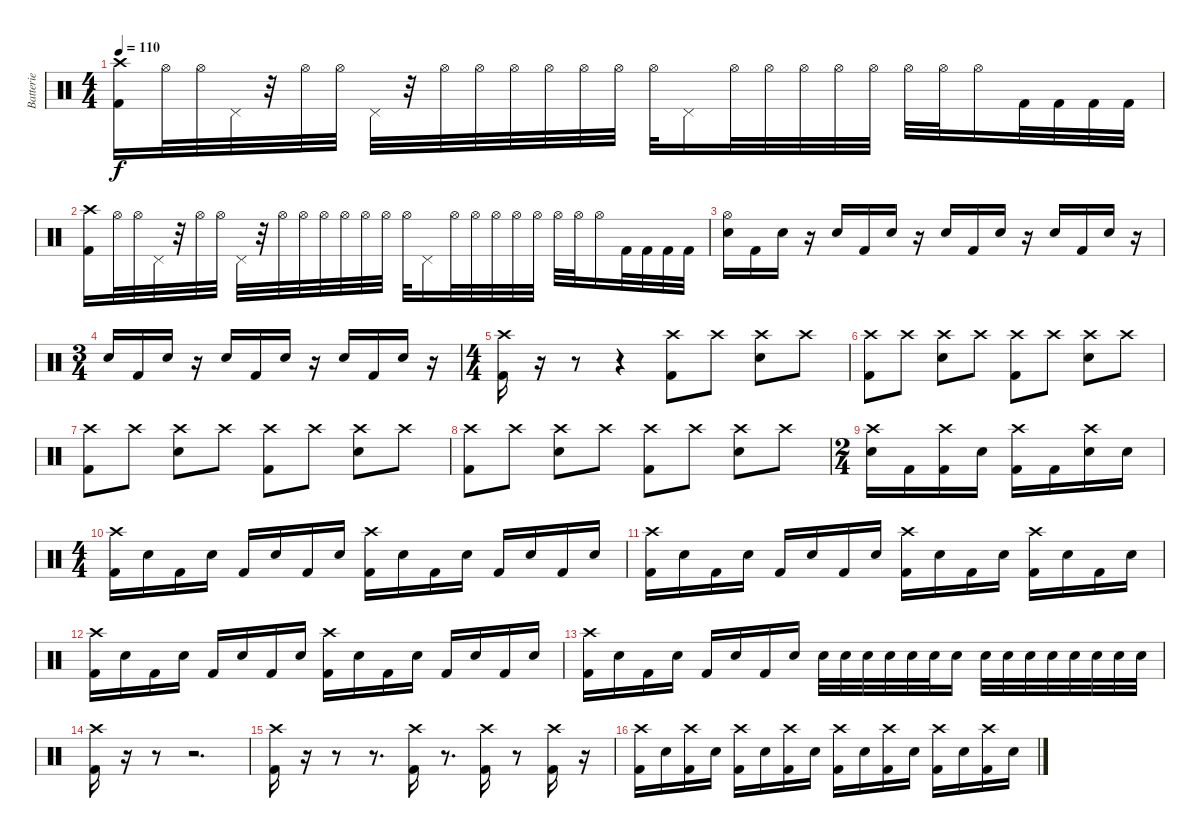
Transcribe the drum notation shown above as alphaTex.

\track ("Batterie" "Batterie") {instrument percussion}
\staff {score}
\articulation defaults
\ts (4 4)
\tempo 110
\clef neutral
\ks c
("Crash high (hit)" "Kick (hit) 2").16{dy f} "Hi-Hat (open)".32 "Hi-Hat (open)".32 "Pedal Hi-Hat (hit)".32 r.32 "Hi-Hat (open)".32 "Hi-Hat (open)".32 "Pedal Hi-Hat (hit)".32 r.32 "Hi-Hat (open)".32 "Hi-Hat (open)".32 "Hi-Hat (open)".32 "Hi-Hat (open)".32 "Hi-Hat (open)".32 "Hi-Hat (open)".32 "Hi-Hat (open)".32 "Pedal Hi-Hat (hit)".16 "Hi-Hat (open)".32 "Hi-Hat (open)".32 "Hi-Hat (open)".32 "Hi-Hat (open)".32 "Hi-Hat (open)".32 "Hi-Hat (open)".32 "Hi-Hat (open)".32 "Hi-Hat (open)".16 "Kick (hit) 2".32 "Kick (hit) 2".32 "Kick (hit) 2".32 "Kick (hit) 2".32 |
("Crash high (hit)" "Kick (hit) 2").16 "Hi-Hat (open)".32 "Hi-Hat (open)".32 "Pedal Hi-Hat (hit)".32 r.32 "Hi-Hat (open)".32 "Hi-Hat (open)".32 "Pedal Hi-Hat (hit)".32 r.32 "Hi-Hat (open)".32 "Hi-Hat (open)".32 "Hi-Hat (open)".32 "Hi-Hat (open)".32 "Hi-Hat (open)".32 "Hi-Hat (open)".32 "Hi-Hat (open)".32 "Pedal Hi-Hat (hit)".16 "Hi-Hat (open)".32 "Hi-Hat (open)".32 "Hi-Hat (open)".32 "Hi-Hat (open)".32 "Hi-Hat (open)".32 "Hi-Hat (open)".32 "Hi-Hat (open)".32 "Hi-Hat (open)".16 "Kick (hit) 2".32 "Kick (hit) 2".32 "Kick (hit) 2".32 "Kick (hit) 2".32 |
("Hi-Hat (open)" "Electric Snare (hit)").16 "Kick (hit) 2".16 "Electric Snare (hit)".16 r.16 "Electric Snare (hit)".16 "Kick (hit) 2".16 "Electric Snare (hit)".16 r.16 "Electric Snare (hit)".16 "Kick (hit) 2".16 "Electric Snare (hit)".16 r.16 "Electric Snare (hit)".16 "Kick (hit) 2".16 "Electric Snare (hit)".16 r.16 |
\ts (3 4)
"Electric Snare (hit)".16 "Kick (hit) 2".16 "Electric Snare (hit)".16 r.16 "Electric Snare (hit)".16 "Kick (hit) 2".16 "Electric Snare (hit)".16 r.16 "Electric Snare (hit)".16 "Kick (hit) 2".16 "Electric Snare (hit)".16 r.16 |
\ts (4 4)
\section ("" "")
("Crash high (hit)" "Kick (hit) 2").16 r.16 r.8 r.4 ("Crash high (hit)" "Kick (hit) 2").8 "Crash high (hit)".8 ("Crash high (hit)" "Electric Snare (hit)").8 "Crash high (hit)".8 |
("Crash high (hit)" "Kick (hit) 2").8 "Crash high (hit)".8 ("Crash high (hit)" "Electric Snare (hit)").8 "Crash high (hit)".8 ("Crash high (hit)" "Kick (hit) 2").8 "Crash high (hit)".8 ("Crash high (hit)" "Electric Snare (hit)").8 "Crash high (hit)".8 |
("Crash high (hit)" "Kick (hit) 2").8 "Crash high (hit)".8 ("Crash high (hit)" "Electric Snare (hit)").8 "Crash high (hit)".8 ("Crash high (hit)" "Kick (hit) 2").8 "Crash high (hit)".8 ("Crash high (hit)" "Electric Snare (hit)").8 "Crash high (hit)".8 |
("Crash high (hit)" "Kick (hit) 2").8 "Crash high (hit)".8 ("Crash high (hit)" "Electric Snare (hit)").8 "Crash high (hit)".8 ("Crash high (hit)" "Kick (hit) 2").8 "Crash high (hit)".8 ("Crash high (hit)" "Electric Snare (hit)").8 "Crash high (hit)".8 |
\ts (2 4)
("Crash high (hit)" "Electric Snare (hit)").16 "Kick (hit) 2".16 ("Crash high (hit)" "Kick (hit) 2").16 "Electric Snare (hit)".16 ("Crash high (hit)" "Kick (hit) 2").16 "Kick (hit) 2".16 ("Crash high (hit)" "Electric Snare (hit)").16 "Electric Snare (hit)".16 |
\ts (4 4)
\section ("" "")
("Crash high (hit)" "Kick (hit) 2").16 "Electric Snare (hit)".16 "Kick (hit) 2".16 "Electric Snare (hit)".16 "Kick (hit) 2".16 "Electric Snare (hit)".16 "Kick (hit) 2".16 "Electric Snare (hit)".16 ("Crash high (hit)" "Kick (hit) 2").16 "Electric Snare (hit)".16 "Kick (hit) 2".16 "Electric Snare (hit)".16 "Kick (hit) 2".16 "Electric Snare (hit)".16 "Kick (hit) 2".16 "Electric Snare (hit)".16 |
("Crash high (hit)" "Kick (hit) 2").16 "Electric Snare (hit)".16 "Kick (hit) 2".16 "Electric Snare (hit)".16 "Kick (hit) 2".16 "Electric Snare (hit)".16 "Kick (hit) 2".16 "Electric Snare (hit)".16 ("Crash high (hit)" "Kick (hit) 2").16 "Electric Snare (hit)".16 "Kick (hit) 2".16 "Electric Snare (hit)".16 ("Crash high (hit)" "Kick (hit) 2").16 "Electric Snare (hit)".16 "Kick (hit) 2".16 "Electric Snare (hit)".16 |
("Crash high (hit)" "Kick (hit) 2").16 "Electric Snare (hit)".16 "Kick (hit) 2".16 "Electric Snare (hit)".16 "Kick (hit) 2".16 "Electric Snare (hit)".16 "Kick (hit) 2".16 "Electric Snare (hit)".16 ("Crash high (hit)" "Kick (hit) 2").16 "Electric Snare (hit)".16 "Kick (hit) 2".16 "Electric Snare (hit)".16 "Kick (hit) 2".16 "Electric Snare (hit)".16 "Kick (hit) 2".16 "Electric Snare (hit)".16 |
("Crash high (hit)" "Kick (hit) 2").16 "Electric Snare (hit)".16 "Kick (hit) 2".16 "Electric Snare (hit)".16 "Kick (hit) 2".16 "Electric Snare (hit)".16 "Kick (hit) 2".16 "Electric Snare (hit)".16 "Electric Snare (hit)".32 "Electric Snare (hit)".32 "Electric Snare (hit)".32 "Electric Snare (hit)".32 "Electric Snare (hit)".32 "Electric Snare (hit)".32 "Electric Snare (hit)".16 "Electric Snare (hit)".32 "Electric Snare (hit)".32 "Electric Snare (hit)".32 "Electric Snare (hit)".32 "Electric Snare (hit)".32 "Electric Snare (hit)".32 "Electric Snare (hit)".32 "Electric Snare (hit)".32 |
\section ("" "")
("Crash high (hit)" "Kick (hit) 2").16 r.16 r.8 r.2{d} |
("Crash high (hit)" "Kick (hit) 2").16 r.16 r.8 r.8{d} ("Crash high (hit)" "Kick (hit) 2").16 r.8{d} ("Crash high (hit)" "Kick (hit) 2").16 r.8 ("Crash high (hit)" "Kick (hit) 2").16 r.16 |
("Crash high (hit)" "Kick (hit) 2").16 "Electric Snare (hit)".16 ("Crash high (hit)" "Kick (hit) 2").16 "Electric Snare (hit)".16 ("Crash high (hit)" "Kick (hit) 2").16 "Electric Snare (hit)".16 ("Crash high (hit)" "Kick (hit) 2").16 "Electric Snare (hit)".16 ("Crash high (hit)" "Kick (hit) 2").16 "Electric Snare (hit)".16 ("Crash high (hit)" "Kick (hit) 2").16 "Electric Snare (hit)".16 ("Crash high (hit)" "Kick (hit) 2").16 "Electric Snare (hit)".16 ("Crash high (hit)" "Kick (hit) 2").16 "Electric Snare (hit)".16
